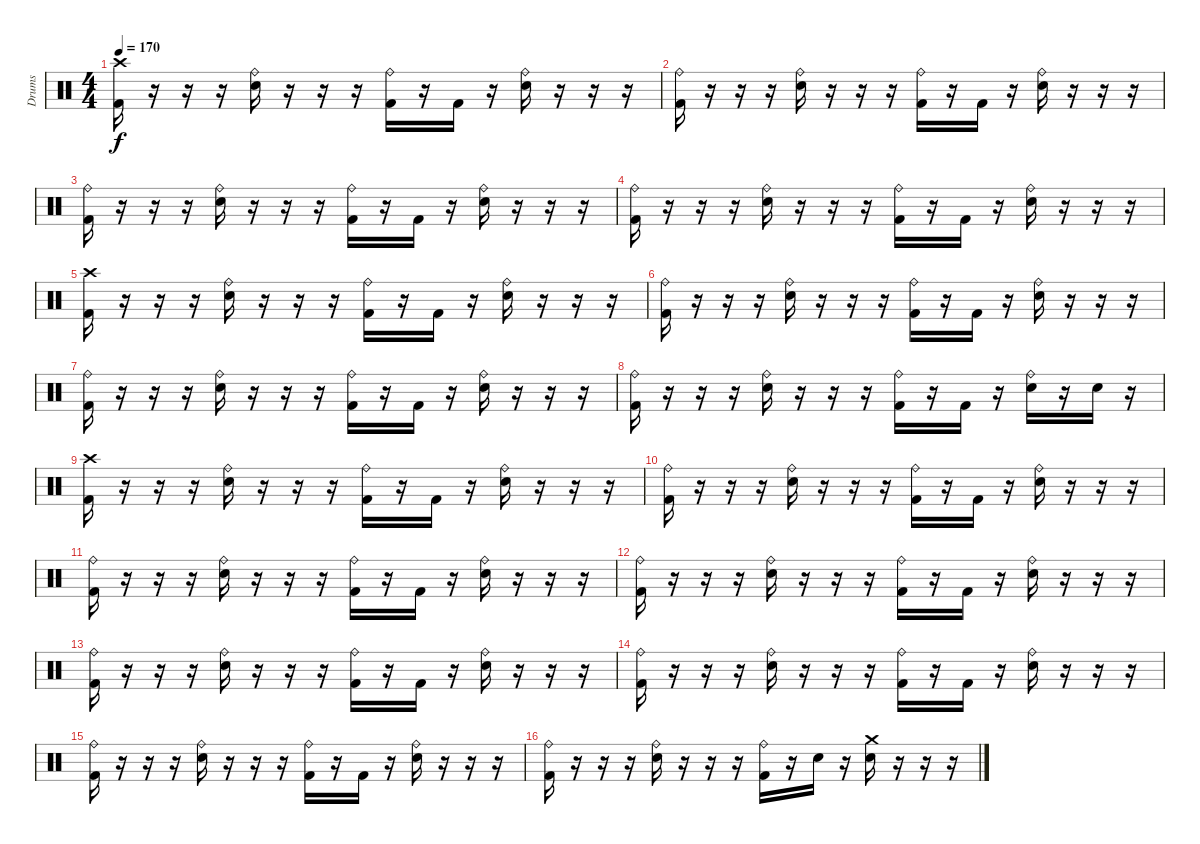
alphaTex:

\track ("Drums" "Drums") {instrument percussion}
\staff {score}
\articulation defaults
\ts (4 4)
\tempo 170
\clef neutral
\ks c
("Crash high (hit)" "Kick (hit) 2").16{dy f} r.16 r.16 r.16 ("Ride (bell)" "Snare (hit) 2").16 r.16 r.16 r.16 ("Ride (bell)" "Kick (hit) 2").16 r.16 "Kick (hit) 2".16 r.16 ("Ride (bell)" "Snare (hit) 2").16 r.16 r.16 r.16 |
("Ride (bell)" "Kick (hit) 2").16 r.16 r.16 r.16 ("Ride (bell)" "Snare (hit) 2").16 r.16 r.16 r.16 ("Ride (bell)" "Kick (hit) 2").16 r.16 "Kick (hit) 2".16 r.16 ("Ride (bell)" "Snare (hit) 2").16 r.16 r.16 r.16 |
("Ride (bell)" "Kick (hit) 2").16 r.16 r.16 r.16 ("Ride (bell)" "Snare (hit) 2").16 r.16 r.16 r.16 ("Ride (bell)" "Kick (hit) 2").16 r.16 "Kick (hit) 2".16 r.16 ("Ride (bell)" "Snare (hit) 2").16 r.16 r.16 r.16 |
("Ride (bell)" "Kick (hit) 2").16 r.16 r.16 r.16 ("Ride (bell)" "Snare (hit) 2").16 r.16 r.16 r.16 ("Ride (bell)" "Kick (hit) 2").16 r.16 "Kick (hit) 2".16 r.16 ("Ride (bell)" "Snare (hit) 2").16 r.16 r.16 r.16 |
("Crash high (hit)" "Kick (hit) 2").16 r.16 r.16 r.16 ("Ride (bell)" "Snare (hit) 2").16 r.16 r.16 r.16 ("Ride (bell)" "Kick (hit) 2").16 r.16 "Kick (hit) 2".16 r.16 ("Ride (bell)" "Snare (hit) 2").16 r.16 r.16 r.16 |
("Ride (bell)" "Kick (hit) 2").16 r.16 r.16 r.16 ("Ride (bell)" "Snare (hit) 2").16 r.16 r.16 r.16 ("Ride (bell)" "Kick (hit) 2").16 r.16 "Kick (hit) 2".16 r.16 ("Ride (bell)" "Snare (hit) 2").16 r.16 r.16 r.16 |
("Ride (bell)" "Kick (hit) 2").16 r.16 r.16 r.16 ("Ride (bell)" "Snare (hit) 2").16 r.16 r.16 r.16 ("Ride (bell)" "Kick (hit) 2").16 r.16 "Kick (hit) 2".16 r.16 ("Ride (bell)" "Snare (hit) 2").16 r.16 r.16 r.16 |
("Ride (bell)" "Kick (hit) 2").16 r.16 r.16 r.16 ("Ride (bell)" "Snare (hit) 2").16 r.16 r.16 r.16 ("Ride (bell)" "Kick (hit) 2").16 r.16 "Kick (hit) 2".16 r.16 ("Ride (bell)" "Snare (hit) 2").16 r.16 "Snare (hit) 2".16 r.16 |
("Crash high (hit)" "Kick (hit) 2").16 r.16 r.16 r.16 ("Ride (bell)" "Snare (hit) 2").16 r.16 r.16 r.16 ("Ride (bell)" "Kick (hit) 2").16 r.16 "Kick (hit) 2".16 r.16 ("Ride (bell)" "Snare (hit) 2").16 r.16 r.16 r.16 |
("Ride (bell)" "Kick (hit) 2").16 r.16 r.16 r.16 ("Ride (bell)" "Snare (hit) 2").16 r.16 r.16 r.16 ("Ride (bell)" "Kick (hit) 2").16 r.16 "Kick (hit) 2".16 r.16 ("Ride (bell)" "Snare (hit) 2").16 r.16 r.16 r.16 |
("Ride (bell)" "Kick (hit) 2").16 r.16 r.16 r.16 ("Ride (bell)" "Snare (hit) 2").16 r.16 r.16 r.16 ("Ride (bell)" "Kick (hit) 2").16 r.16 "Kick (hit) 2".16 r.16 ("Ride (bell)" "Snare (hit) 2").16 r.16 r.16 r.16 |
("Ride (bell)" "Kick (hit) 2").16 r.16 r.16 r.16 ("Ride (bell)" "Snare (hit) 2").16 r.16 r.16 r.16 ("Ride (bell)" "Kick (hit) 2").16 r.16 "Kick (hit) 2".16 r.16 ("Ride (bell)" "Snare (hit) 2").16 r.16 r.16 r.16 |
("Ride (bell)" "Kick (hit) 2").16 r.16 r.16 r.16 ("Ride (bell)" "Snare (hit) 2").16 r.16 r.16 r.16 ("Ride (bell)" "Kick (hit) 2").16 r.16 "Kick (hit) 2".16 r.16 ("Ride (bell)" "Snare (hit) 2").16 r.16 r.16 r.16 |
("Ride (bell)" "Kick (hit) 2").16 r.16 r.16 r.16 ("Ride (bell)" "Snare (hit) 2").16 r.16 r.16 r.16 ("Ride (bell)" "Kick (hit) 2").16 r.16 "Kick (hit) 2".16 r.16 ("Ride (bell)" "Snare (hit) 2").16 r.16 r.16 r.16 |
("Ride (bell)" "Kick (hit) 2").16 r.16 r.16 r.16 ("Ride (bell)" "Snare (hit) 2").16 r.16 r.16 r.16 ("Ride (bell)" "Kick (hit) 2").16 r.16 "Kick (hit) 2".16 r.16 ("Ride (bell)" "Snare (hit) 2").16 r.16 r.16 r.16 |
("Ride (bell)" "Kick (hit) 2").16 r.16 r.16 r.16 ("Ride (bell)" "Snare (hit) 2").16 r.16 r.16 r.16 ("Ride (bell)" "Kick (hit) 2").16 r.16 "Snare (hit) 2".16 r.16 ("Crash medium (hit)" "Snare (hit) 2").16 r.16 r.16 r.16
